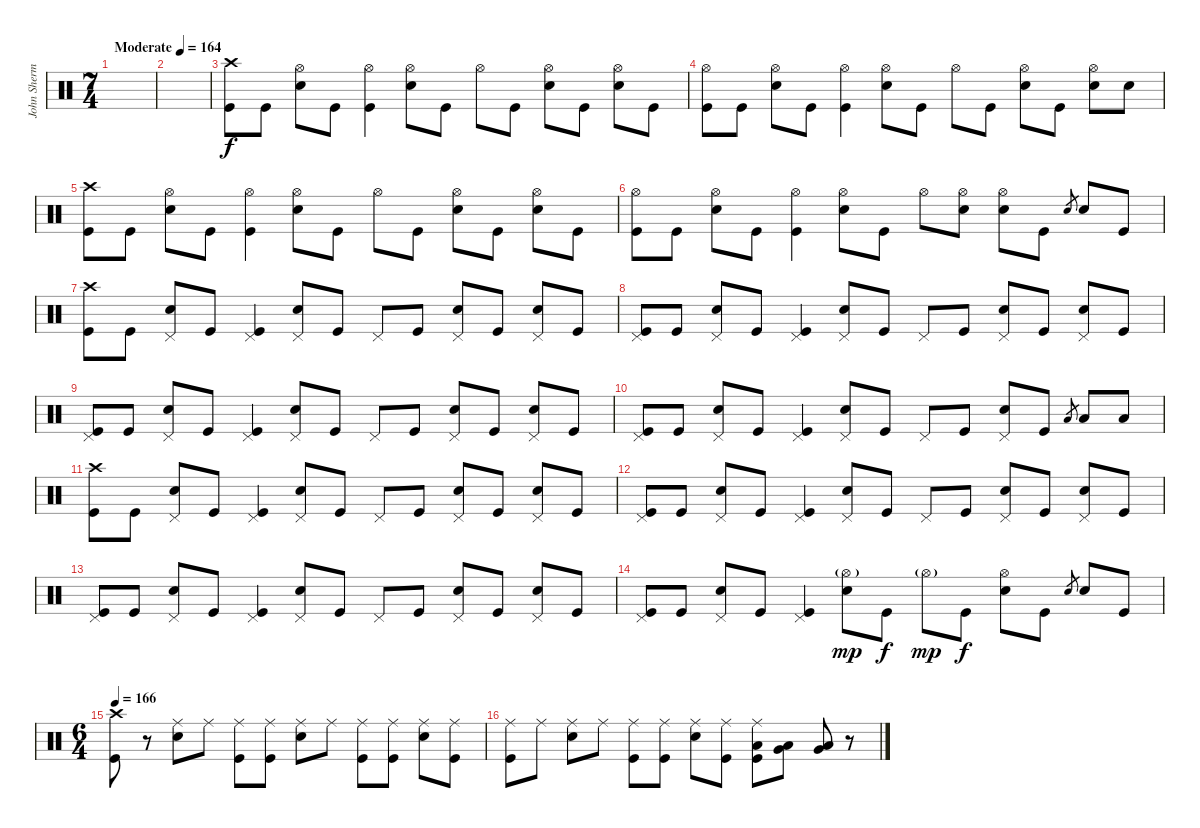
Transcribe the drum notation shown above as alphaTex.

\track ("John Sherman" "John Sherm") {instrument percussion}
\staff {score}
\articulation defaults
\ts (7 4)
\tempo (164 "Moderate")
\clef neutral
\ks c
|
|
("Crash high (hit)" "Kick (hit)").8 "Kick (hit)".8 ("Hi-Hat (open)" "Electric Snare (hit)").8 "Kick (hit)".8 ("Hi-Hat (open)" "Kick (hit)").4 ("Hi-Hat (open)" "Electric Snare (hit)").8 "Kick (hit)".8 "Hi-Hat (open)".8 "Kick (hit)".8 ("Hi-Hat (open)" "Electric Snare (hit)").8 "Kick (hit)".8 ("Hi-Hat (open)" "Electric Snare (hit)").8 "Kick (hit)".8 |
("Hi-Hat (open)" "Kick (hit)").8 "Kick (hit)".8 ("Hi-Hat (open)" "Electric Snare (hit)").8 "Kick (hit)".8 ("Hi-Hat (open)" "Kick (hit)").4 ("Hi-Hat (open)" "Electric Snare (hit)").8 "Kick (hit)".8 "Hi-Hat (open)".8 "Kick (hit)".8 ("Hi-Hat (open)" "Electric Snare (hit)").8 "Kick (hit)".8 ("Hi-Hat (open)" "Electric Snare (hit)").8 "Electric Snare (hit)".8 |
("Crash high (hit)" "Kick (hit)").8 "Kick (hit)".8 ("Hi-Hat (open)" "Electric Snare (hit)").8 "Kick (hit)".8 ("Hi-Hat (open)" "Kick (hit)").4 ("Hi-Hat (open)" "Electric Snare (hit)").8 "Kick (hit)".8 "Hi-Hat (open)".8 "Kick (hit)".8 ("Hi-Hat (open)" "Electric Snare (hit)").8 "Kick (hit)".8 ("Hi-Hat (open)" "Electric Snare (hit)").8 "Kick (hit)".8 |
("Hi-Hat (open)" "Kick (hit)").8 "Kick (hit)".8 ("Hi-Hat (open)" "Electric Snare (hit)").8 "Kick (hit)".8 ("Hi-Hat (open)" "Kick (hit)").4 ("Hi-Hat (open)" "Electric Snare (hit)").8 "Kick (hit)".8 "Hi-Hat (open)".8 ("Hi-Hat (open)" "Electric Snare (hit)").8 ("Hi-Hat (open)" "Electric Snare (hit)").8 "Kick (hit)".8 "Electric Snare (hit)".8{gr} "Electric Snare (hit)".8 "Kick (hit)".8 |
("Crash high (hit)" "Kick (hit)").8 "Kick (hit)".8 ("Pedal Hi-Hat (hit)" "Electric Snare (hit)").8 "Kick (hit)".8 ("Pedal Hi-Hat (hit)" "Kick (hit)").4 ("Pedal Hi-Hat (hit)" "Electric Snare (hit)").8 "Kick (hit)".8 "Pedal Hi-Hat (hit)".8 "Kick (hit)".8 ("Pedal Hi-Hat (hit)" "Electric Snare (hit)").8 "Kick (hit)".8 ("Pedal Hi-Hat (hit)" "Electric Snare (hit)").8 "Kick (hit)".8 |
("Pedal Hi-Hat (hit)" "Kick (hit)").8 "Kick (hit)".8 ("Pedal Hi-Hat (hit)" "Electric Snare (hit)").8 "Kick (hit)".8 ("Pedal Hi-Hat (hit)" "Kick (hit)").4 ("Pedal Hi-Hat (hit)" "Electric Snare (hit)").8 "Kick (hit)".8 "Pedal Hi-Hat (hit)".8 "Kick (hit)".8 ("Pedal Hi-Hat (hit)" "Electric Snare (hit)").8 "Kick (hit)".8 ("Pedal Hi-Hat (hit)" "Electric Snare (hit)").8 "Kick (hit)".8 |
("Pedal Hi-Hat (hit)" "Kick (hit)").8 "Kick (hit)".8 ("Pedal Hi-Hat (hit)" "Electric Snare (hit)").8 "Kick (hit)".8 ("Pedal Hi-Hat (hit)" "Kick (hit)").4 ("Pedal Hi-Hat (hit)" "Electric Snare (hit)").8 "Kick (hit)".8 "Pedal Hi-Hat (hit)".8 "Kick (hit)".8 ("Pedal Hi-Hat (hit)" "Electric Snare (hit)").8 "Kick (hit)".8 ("Pedal Hi-Hat (hit)" "Electric Snare (hit)").8 "Kick (hit)".8 |
("Pedal Hi-Hat (hit)" "Kick (hit)").8 "Kick (hit)".8 ("Pedal Hi-Hat (hit)" "Electric Snare (hit)").8 "Kick (hit)".8 ("Pedal Hi-Hat (hit)" "Kick (hit)").4 ("Pedal Hi-Hat (hit)" "Electric Snare (hit)").8 "Kick (hit)".8 "Pedal Hi-Hat (hit)".8 "Kick (hit)".8 ("Pedal Hi-Hat (hit)" "Electric Snare (hit)").8 "Kick (hit)".8 "Low Tom (hit)".8{gr} "Low Tom (hit)".8 "Low Tom (hit)".8 |
("Crash high (hit)" "Kick (hit)").8 "Kick (hit)".8 ("Pedal Hi-Hat (hit)" "Electric Snare (hit)").8 "Kick (hit)".8 ("Pedal Hi-Hat (hit)" "Kick (hit)").4 ("Pedal Hi-Hat (hit)" "Electric Snare (hit)").8 "Kick (hit)".8 "Pedal Hi-Hat (hit)".8 "Kick (hit)".8 ("Pedal Hi-Hat (hit)" "Electric Snare (hit)").8 "Kick (hit)".8 ("Pedal Hi-Hat (hit)" "Electric Snare (hit)").8 "Kick (hit)".8 |
("Pedal Hi-Hat (hit)" "Kick (hit)").8 "Kick (hit)".8 ("Pedal Hi-Hat (hit)" "Electric Snare (hit)").8 "Kick (hit)".8 ("Pedal Hi-Hat (hit)" "Kick (hit)").4 ("Pedal Hi-Hat (hit)" "Electric Snare (hit)").8 "Kick (hit)".8 "Pedal Hi-Hat (hit)".8 "Kick (hit)".8 ("Pedal Hi-Hat (hit)" "Electric Snare (hit)").8 "Kick (hit)".8 ("Pedal Hi-Hat (hit)" "Electric Snare (hit)").8 "Kick (hit)".8 |
("Pedal Hi-Hat (hit)" "Kick (hit)").8 "Kick (hit)".8 ("Pedal Hi-Hat (hit)" "Electric Snare (hit)").8 "Kick (hit)".8 ("Pedal Hi-Hat (hit)" "Kick (hit)").4 ("Pedal Hi-Hat (hit)" "Electric Snare (hit)").8 "Kick (hit)".8 "Pedal Hi-Hat (hit)".8 "Kick (hit)".8 ("Pedal Hi-Hat (hit)" "Electric Snare (hit)").8 "Kick (hit)".8 ("Pedal Hi-Hat (hit)" "Electric Snare (hit)").8 "Kick (hit)".8 |
("Pedal Hi-Hat (hit)" "Kick (hit)").8 "Kick (hit)".8 ("Pedal Hi-Hat (hit)" "Electric Snare (hit)").8 "Kick (hit)".8 ("Pedal Hi-Hat (hit)" "Kick (hit)").4 ("Hi-Hat (open)"{g} "Electric Snare (hit)").8{dy mp} "Kick (hit)".8{dy f} "Hi-Hat (open)"{g}.8{dy mp} "Kick (hit)".8{dy f} ("Hi-Hat (open)" "Electric Snare (hit)").8 "Kick (hit)".8 "Electric Snare (hit)".8{gr} "Electric Snare (hit)".8 "Kick (hit)".8 |
\ts (6 4)
\tempo 166
("Crash high (hit)" "Kick (hit)").8 r.8 ("Ride (middle)" "Electric Snare (hit)").8 "Ride (middle)".8 ("Ride (middle)" "Kick (hit)").8 ("Ride (middle)" "Kick (hit)").8 ("Ride (middle)" "Electric Snare (hit)").8 "Ride (middle)".8 ("Ride (middle)" "Kick (hit)").8 ("Ride (middle)" "Kick (hit)").8 ("Ride (middle)" "Electric Snare (hit)").8 ("Ride (middle)" "Kick (hit)").8 |
("Ride (middle)" "Kick (hit)").8 "Ride (middle)".8 ("Ride (middle)" "Electric Snare (hit)").8 "Ride (middle)".8 ("Ride (middle)" "Kick (hit)").8 ("Ride (middle)" "Kick (hit)").8 ("Ride (middle)" "Electric Snare (hit)").8 ("Ride (middle)" "Kick (hit)").8 ("Ride (middle)" "Low Tom (hit)" "Kick (hit)").8 ("Very Low Tom (hit)" "Low Tom (hit)").8 ("Very Low Tom (hit)" "Low Tom (hit)").8 r.8
